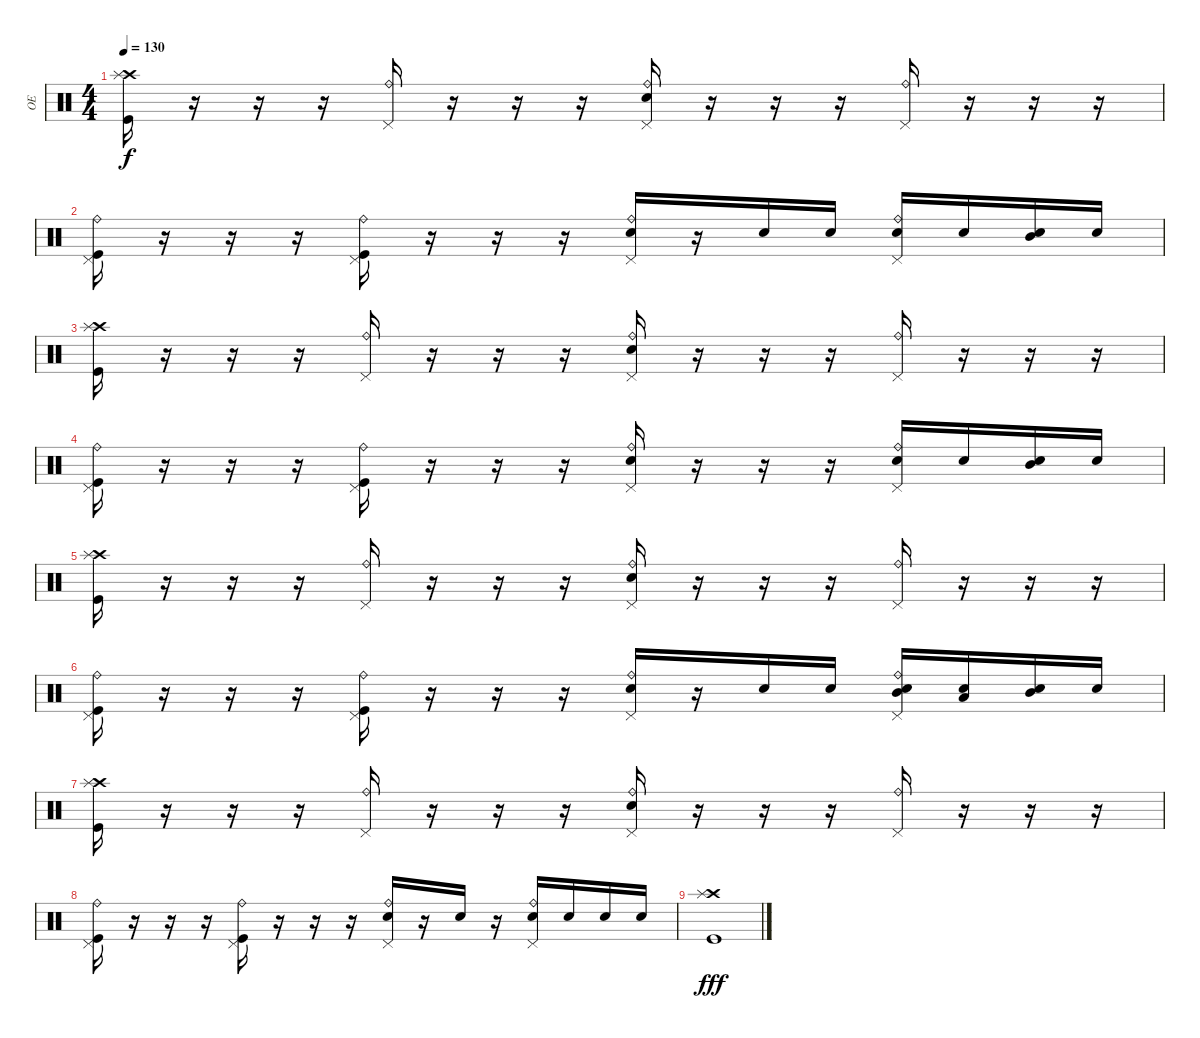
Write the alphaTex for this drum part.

\track ("OE" "OE") {instrument percussion}
\staff {score}
\articulation defaults
\ts (4 4)
\tempo 130
\clef neutral
\ks c
("Crash high (hit)" "Kick (hit)" "Splash (hit)").16{dy f} r.16 r.16 r.16 ("Pedal Hi-Hat (hit)" "Ride (bell)").16 r.16 r.16 r.16 ("Pedal Hi-Hat (hit)" "Ride (bell)" "Snare (hit) 2").16 r.16 r.16 r.16 ("Pedal Hi-Hat (hit)" "Ride (bell)").16 r.16 r.16 r.16 |
("Pedal Hi-Hat (hit)" "Ride (bell)" "Kick (hit)").16 r.16 r.16 r.16 ("Pedal Hi-Hat (hit)" "Kick (hit)" "Ride (bell)").16 r.16 r.16 r.16 ("Pedal Hi-Hat (hit)" "Snare (hit) 2" "Ride (bell)").16 r.16 "Snare (hit) 2".16 "Snare (hit) 2".16 ("Pedal Hi-Hat (hit)" "Ride (bell)" "Snare (hit) 2").16 "Snare (hit) 2".16 ("Snare (hit) 2" "Mid Tom (hit)").16 "Snare (hit) 2".16 |
("Crash high (hit)" "Kick (hit)" "Splash (hit)").16 r.16 r.16 r.16 ("Pedal Hi-Hat (hit)" "Ride (bell)").16 r.16 r.16 r.16 ("Pedal Hi-Hat (hit)" "Ride (bell)" "Snare (hit) 2").16 r.16 r.16 r.16 ("Pedal Hi-Hat (hit)" "Ride (bell)").16 r.16 r.16 r.16 |
("Pedal Hi-Hat (hit)" "Ride (bell)" "Kick (hit)").16 r.16 r.16 r.16 ("Pedal Hi-Hat (hit)" "Kick (hit)" "Ride (bell)").16 r.16 r.16 r.16 ("Pedal Hi-Hat (hit)" "Snare (hit) 2" "Ride (bell)").16 r.16 r.16 r.16 ("Pedal Hi-Hat (hit)" "Ride (bell)" "Snare (hit) 2").16 "Snare (hit) 2".16 ("Snare (hit) 2" "Mid Tom (hit)").16 "Snare (hit) 2".16 |
("Crash high (hit)" "Kick (hit)" "Splash (hit)").16 r.16 r.16 r.16 ("Pedal Hi-Hat (hit)" "Ride (bell)").16 r.16 r.16 r.16 ("Pedal Hi-Hat (hit)" "Ride (bell)" "Snare (hit) 2").16 r.16 r.16 r.16 ("Pedal Hi-Hat (hit)" "Ride (bell)").16 r.16 r.16 r.16 |
("Pedal Hi-Hat (hit)" "Ride (bell)" "Kick (hit)").16 r.16 r.16 r.16 ("Pedal Hi-Hat (hit)" "Kick (hit)" "Ride (bell)").16 r.16 r.16 r.16 ("Pedal Hi-Hat (hit)" "Snare (hit) 2" "Ride (bell)").16 r.16 "Snare (hit) 2".16 "Snare (hit) 2".16 ("Pedal Hi-Hat (hit)" "Ride (bell)" "Snare (hit) 2" "Mid Tom (hit)").16 ("Snare (hit) 2" "Low Tom (hit)").16 ("Snare (hit) 2" "Mid Tom (hit)").16 "Snare (hit) 2".16 |
("Crash high (hit)" "Kick (hit)" "Splash (hit)").16 r.16 r.16 r.16 ("Pedal Hi-Hat (hit)" "Ride (bell)").16 r.16 r.16 r.16 ("Pedal Hi-Hat (hit)" "Ride (bell)" "Snare (hit) 2").16 r.16 r.16 r.16 ("Pedal Hi-Hat (hit)" "Ride (bell)").16 r.16 r.16 r.16 |
("Pedal Hi-Hat (hit)" "Ride (bell)" "Kick (hit)").16 r.16 r.16 r.16 ("Pedal Hi-Hat (hit)" "Kick (hit)" "Ride (bell)").16 r.16 r.16 r.16 ("Pedal Hi-Hat (hit)" "Snare (hit) 2" "Ride (bell)").16 r.16 "Snare (hit) 2".16 r.16 ("Pedal Hi-Hat (hit)" "Ride (bell)" "Snare (hit) 2").16 "Snare (hit) 2".16 "Snare (hit) 2".16 "Snare (hit) 2".16 |
("Kick (hit)" "Crash high (hit)" "Splash (hit)").1{dy fff}
